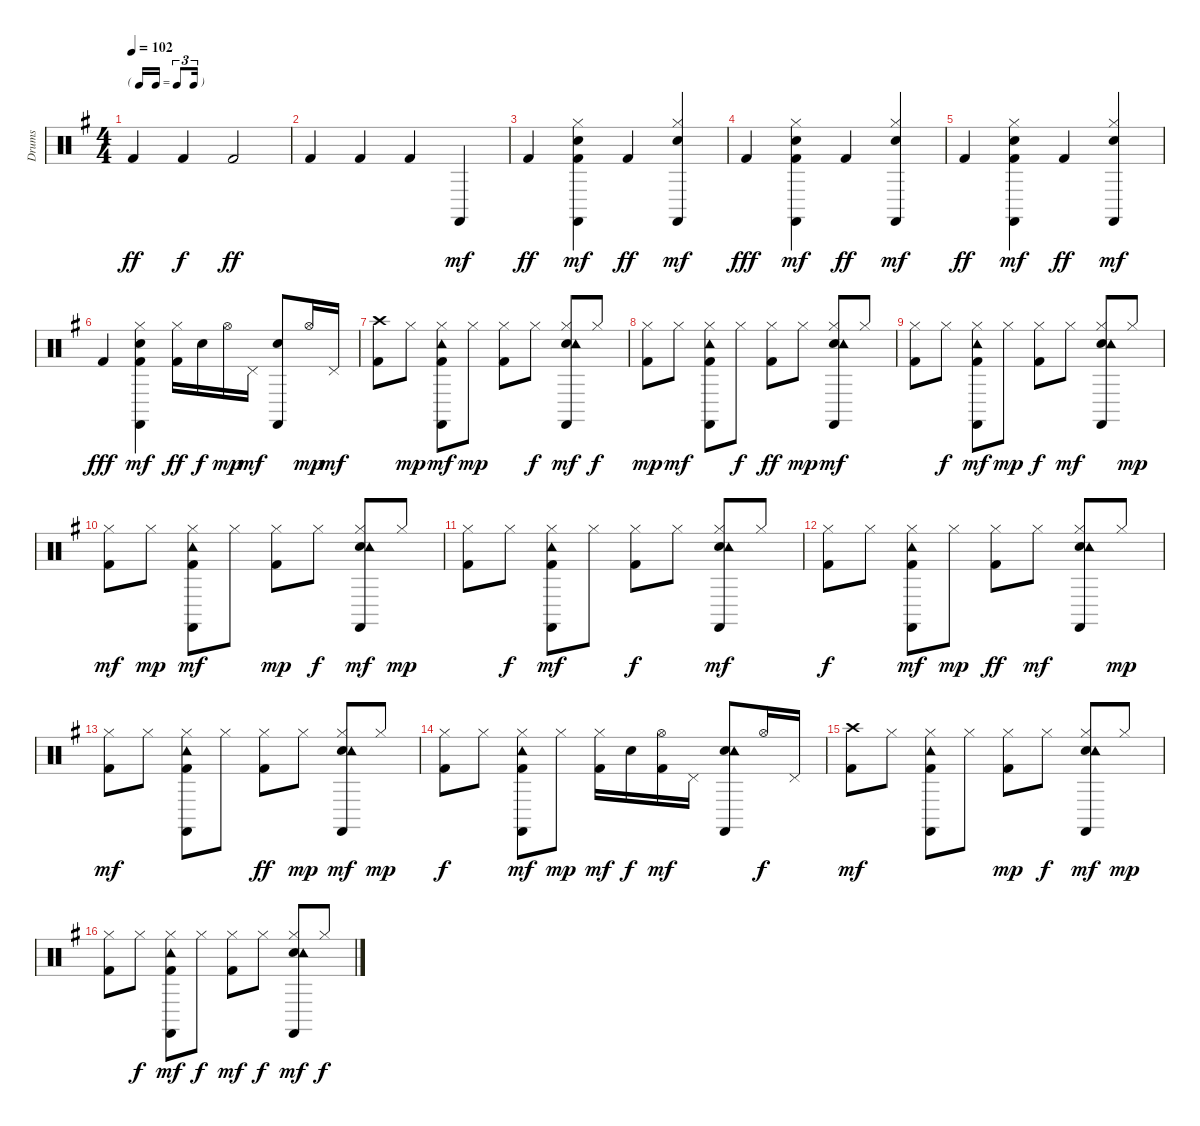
\track ("Drums" "Drums") {instrument percussion}
\staff {score}
\articulation defaults
\ts (4 4)
\tf triplet16th
\tempo 102
\clef neutral
\ks g "Kick (hit) 2".4{dy ff} "Kick (hit) 2".4{dy f} "Kick (hit) 2".2{dy ff}
|
"Kick (hit) 2".4 "Kick (hit) 2".4 "Kick (hit) 2".4 "Castanets (hit)".4{dy mf} |
"Kick (hit) 2".4{dy ff} ("Kick (hit) 2" "Snare (hit) 2" "Hi-Hat (closed)" "Castanets (hit)").4{dy mf} "Kick (hit) 2".4{dy ff} ("Snare (hit) 2" "Hi-Hat (closed)" "Castanets (hit)").4{dy mf} |
"Kick (hit) 2".4{dy fff} ("Kick (hit) 2" "Snare (hit) 2" "Hi-Hat (closed)" "Castanets (hit)").4{dy mf} "Kick (hit) 2".4{dy ff} ("Snare (hit) 2" "Hi-Hat (closed)" "Castanets (hit)").4{dy mf} |
"Kick (hit) 2".4{dy ff} ("Kick (hit) 2" "Snare (hit) 2" "Hi-Hat (closed)" "Castanets (hit)").4{dy mf} "Kick (hit) 2".4{dy ff} ("Snare (hit) 2" "Hi-Hat (closed)" "Castanets (hit)").4{dy mf} |
"Kick (hit) 2".4{dy fff} ("Kick (hit) 2" "Snare (hit) 2" "Hi-Hat (closed)" "Castanets (hit)").4{dy mf} ("Kick (hit) 2" "Hi-Hat (closed)").16{dy ff} "Snare (hit) 2".16{dy f} "Hi-Hat (open)".16{dy mp} "Pedal Hi-Hat (hit)".16{dy mf} ("Snare (hit) 2" "Castanets (hit)").8 "Hi-Hat (open)".16{dy mp} "Pedal Hi-Hat (hit)".16{dy mf} |
("Kick (hit) 2" "Crash high (hit)").8 "Hi-Hat (closed)".8{dy mp} ("Kick (hit) 2" "Hi-Hat (closed)" "Tambourine (hit)" "Castanets (hit)").8{dy mf} "Hi-Hat (closed)".8{dy mp} ("Kick (hit) 2" "Hi-Hat (closed)").8 "Hi-Hat (closed)".8{dy f} ("Snare (hit) 2" "Hi-Hat (closed)" "Tambourine (hit)" "Castanets (hit)").8{dy mf} "Hi-Hat (closed)".8{dy f} |
("Kick (hit) 2" "Hi-Hat (closed)").8{dy mp} "Hi-Hat (closed)".8{dy mf} ("Kick (hit) 2" "Hi-Hat (closed)" "Tambourine (hit)" "Castanets (hit)").8 "Hi-Hat (closed)".8{dy f} ("Kick (hit) 2" "Hi-Hat (closed)").8{dy ff} "Hi-Hat (closed)".8{dy mp} ("Snare (hit) 2" "Hi-Hat (closed)" "Tambourine (hit)" "Castanets (hit)").8{dy mf} "Hi-Hat (closed)".8 |
("Kick (hit) 2" "Hi-Hat (closed)").8 "Hi-Hat (closed)".8{dy f} ("Kick (hit) 2" "Hi-Hat (closed)" "Tambourine (hit)" "Castanets (hit)").8{dy mf} "Hi-Hat (closed)".8{dy mp} ("Kick (hit) 2" "Hi-Hat (closed)").8{dy f} "Hi-Hat (closed)".8{dy mf} ("Snare (hit) 2" "Hi-Hat (closed)" "Tambourine (hit)" "Castanets (hit)").8 "Hi-Hat (closed)".8{dy mp} |
("Kick (hit) 2" "Hi-Hat (closed)").8{dy mf} "Hi-Hat (closed)".8{dy mp} ("Kick (hit) 2" "Hi-Hat (closed)" "Tambourine (hit)" "Castanets (hit)").8{dy mf} "Hi-Hat (closed)".8 ("Kick (hit) 2" "Hi-Hat (closed)").8{dy mp} "Hi-Hat (closed)".8{dy f} ("Snare (hit) 2" "Hi-Hat (closed)" "Tambourine (hit)" "Castanets (hit)").8{dy mf} "Hi-Hat (closed)".8{dy mp} |
("Kick (hit) 2" "Hi-Hat (closed)").8 "Hi-Hat (closed)".8{dy f} ("Kick (hit) 2" "Hi-Hat (closed)" "Tambourine (hit)" "Castanets (hit)").8{dy mf} "Hi-Hat (closed)".8 ("Kick (hit) 2" "Hi-Hat (closed)").8{dy f} "Hi-Hat (closed)".8 ("Snare (hit) 2" "Hi-Hat (closed)" "Tambourine (hit)" "Castanets (hit)").8{dy mf} "Hi-Hat (closed)".8 |
("Kick (hit) 2" "Hi-Hat (closed)").8{dy f} "Hi-Hat (closed)".8 ("Kick (hit) 2" "Hi-Hat (closed)" "Tambourine (hit)" "Castanets (hit)").8{dy mf} "Hi-Hat (closed)".8{dy mp} ("Kick (hit) 2" "Hi-Hat (closed)").8{dy ff} "Hi-Hat (closed)".8{dy mf} ("Snare (hit) 2" "Hi-Hat (closed)" "Tambourine (hit)" "Castanets (hit)").8 "Hi-Hat (closed)".8{dy mp} |
("Kick (hit) 2" "Hi-Hat (closed)").8{dy mf} "Hi-Hat (closed)".8 ("Kick (hit) 2" "Hi-Hat (closed)" "Tambourine (hit)" "Castanets (hit)").8 "Hi-Hat (closed)".8 ("Kick (hit) 2" "Hi-Hat (closed)").8{dy ff} "Hi-Hat (closed)".8{dy mp} ("Snare (hit) 2" "Hi-Hat (closed)" "Tambourine (hit)" "Castanets (hit)").8{dy mf} "Hi-Hat (closed)".8{dy mp} |
("Kick (hit) 2" "Hi-Hat (closed)").8{dy f} "Hi-Hat (closed)".8 ("Kick (hit) 2" "Hi-Hat (closed)" "Tambourine (hit)" "Castanets (hit)").8{dy mf} "Hi-Hat (closed)".8{dy mp} ("Kick (hit) 2" "Hi-Hat (closed)").16{dy mf} "Snare (hit) 2".16{dy f} ("Kick (hit) 2" "Hi-Hat (open)").16{dy mf} "Pedal Hi-Hat (hit)".16 ("Snare (hit) 2" "Tambourine (hit)" "Castanets (hit)").8 "Hi-Hat (open)".16{dy f} "Pedal Hi-Hat (hit)".16 |
("Kick (hit) 2" "Crash high (hit)").8{dy mf} "Hi-Hat (closed)".8 ("Kick (hit) 2" "Hi-Hat (closed)" "Tambourine (hit)" "Castanets (hit)").8 "Hi-Hat (closed)".8 ("Kick (hit) 2" "Hi-Hat (closed)").8{dy mp} "Hi-Hat (closed)".8{dy f} ("Snare (hit) 2" "Hi-Hat (closed)" "Tambourine (hit)" "Castanets (hit)").8{dy mf} "Hi-Hat (closed)".8{dy mp} |
("Kick (hit) 2" "Hi-Hat (closed)").8 "Hi-Hat (closed)".8{dy f} ("Kick (hit) 2" "Hi-Hat (closed)" "Tambourine (hit)" "Castanets (hit)").8{dy mf} "Hi-Hat (closed)".8{dy f} ("Kick (hit) 2" "Hi-Hat (closed)").8{dy mf} "Hi-Hat (closed)".8{dy f} ("Snare (hit) 2" "Hi-Hat (closed)" "Tambourine (hit)" "Castanets (hit)").8{dy mf} "Hi-Hat (closed)".8{dy f}
